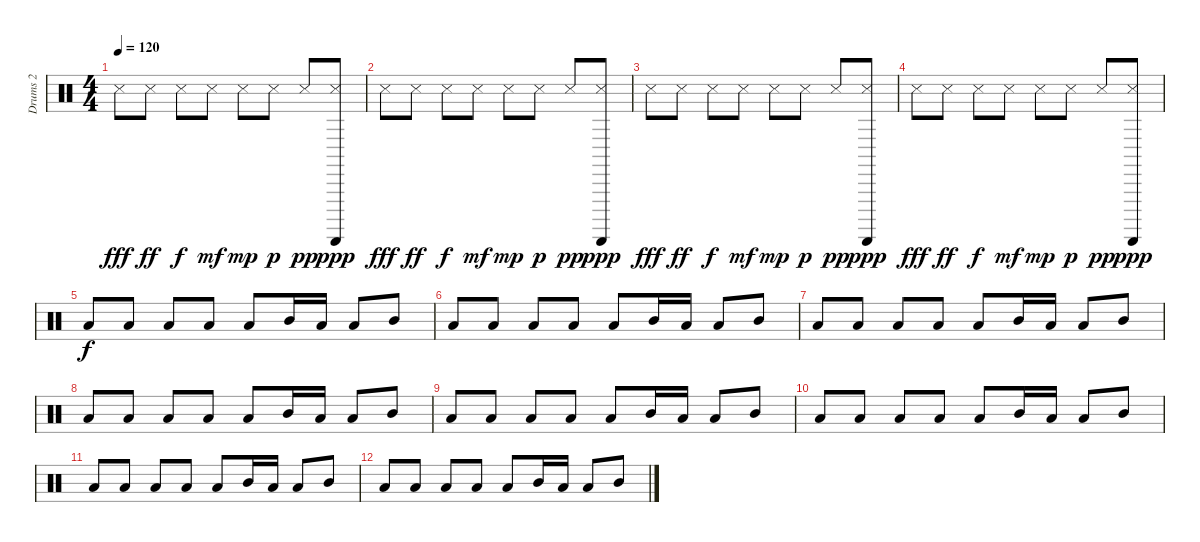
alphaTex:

\track ("Drums 2" "Drums 2") {instrument percussion}
\staff {score}
\articulation defaults
\ts (4 4)
\tempo 120
\clef neutral
\ks c "Snare (side stick) 3".8{dy fff} "Snare (side stick) 3".8{dy ff} "Snare (side stick) 3".8{dy f} "Snare (side stick) 3".8{dy mf} "Snare (side stick) 3".8{dy mp} "Snare (side stick) 3".8{dy p} "Snare (side stick) 3".8{dy pp}
("Guiro (scrap-return)" "Snare (side stick) 3").8{dy ppp} |
"Snare (side stick) 3".8{dy fff} "Snare (side stick) 3".8{dy ff} "Snare (side stick) 3".8{dy f} "Snare (side stick) 3".8{dy mf} "Snare (side stick) 3".8{dy mp} "Snare (side stick) 3".8{dy p} "Snare (side stick) 3".8{dy pp} ("Guiro (scrap-return)" "Snare (side stick) 3").8{dy ppp} |
"Snare (side stick) 3".8{dy fff} "Snare (side stick) 3".8{dy ff} "Snare (side stick) 3".8{dy f} "Snare (side stick) 3".8{dy mf} "Snare (side stick) 3".8{dy mp} "Snare (side stick) 3".8{dy p} "Snare (side stick) 3".8{dy pp} ("Guiro (scrap-return)" "Snare (side stick) 3").8{dy ppp} |
"Snare (side stick) 3".8{dy fff} "Snare (side stick) 3".8{dy ff} "Snare (side stick) 3".8{dy f} "Snare (side stick) 3".8{dy mf} "Snare (side stick) 3".8{dy mp} "Snare (side stick) 3".8{dy p} "Snare (side stick) 3".8{dy pp} ("Guiro (scrap-return)" "Snare (side stick) 3").8{dy ppp} |
"Low Tom (hit)".8{dy f} "Low Tom (hit)".8 "Low Tom (hit)".8 "Low Tom (hit)".8 "Low Tom (hit)".8 "Mid Tom (hit)".16 "Low Tom (hit)".16 "Low Tom (hit)".8 "Mid Tom (hit)".8 |
"Low Tom (hit)".8 "Low Tom (hit)".8 "Low Tom (hit)".8 "Low Tom (hit)".8 "Low Tom (hit)".8 "Mid Tom (hit)".16 "Low Tom (hit)".16 "Low Tom (hit)".8 "Mid Tom (hit)".8 |
"Low Tom (hit)".8 "Low Tom (hit)".8 "Low Tom (hit)".8 "Low Tom (hit)".8 "Low Tom (hit)".8 "Mid Tom (hit)".16 "Low Tom (hit)".16 "Low Tom (hit)".8 "Mid Tom (hit)".8 |
"Low Tom (hit)".8 "Low Tom (hit)".8 "Low Tom (hit)".8 "Low Tom (hit)".8 "Low Tom (hit)".8 "Mid Tom (hit)".16 "Low Tom (hit)".16 "Low Tom (hit)".8 "Mid Tom (hit)".8 |
"Low Tom (hit)".8 "Low Tom (hit)".8 "Low Tom (hit)".8 "Low Tom (hit)".8 "Low Tom (hit)".8 "Mid Tom (hit)".16 "Low Tom (hit)".16 "Low Tom (hit)".8 "Mid Tom (hit)".8 |
"Low Tom (hit)".8 "Low Tom (hit)".8 "Low Tom (hit)".8 "Low Tom (hit)".8 "Low Tom (hit)".8 "Mid Tom (hit)".16 "Low Tom (hit)".16 "Low Tom (hit)".8 "Mid Tom (hit)".8 |
"Low Tom (hit)".8 "Low Tom (hit)".8 "Low Tom (hit)".8 "Low Tom (hit)".8 "Low Tom (hit)".8 "Mid Tom (hit)".16 "Low Tom (hit)".16 "Low Tom (hit)".8 "Mid Tom (hit)".8 |
"Low Tom (hit)".8 "Low Tom (hit)".8 "Low Tom (hit)".8 "Low Tom (hit)".8 "Low Tom (hit)".8 "Mid Tom (hit)".16 "Low Tom (hit)".16 "Low Tom (hit)".8 "Mid Tom (hit)".8
